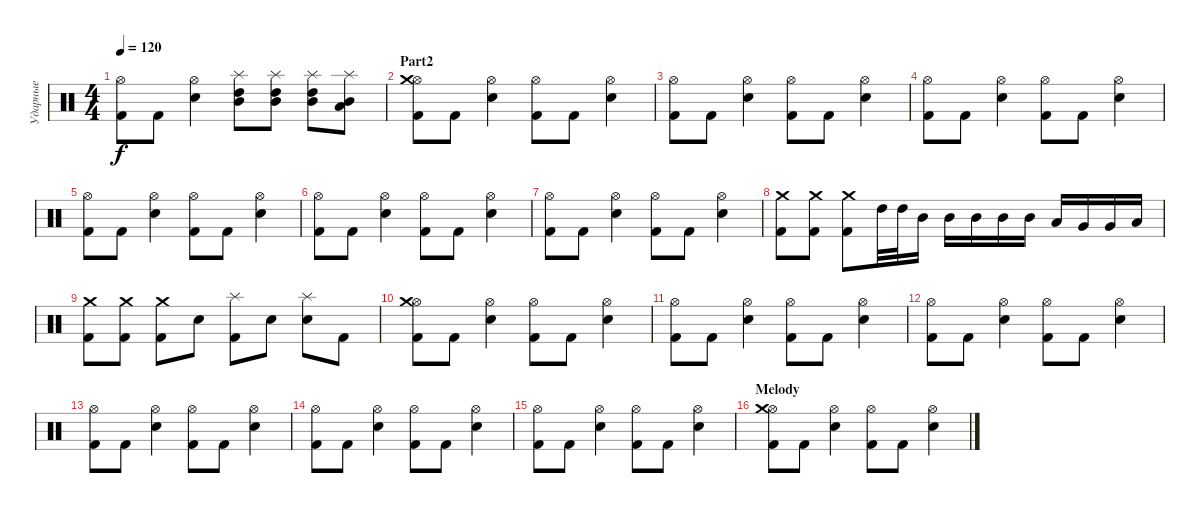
\track ("Ударные" "Ударные") {instrument percussion}
\staff {score}
\articulation defaults
\ts (4 4)
\tempo 120
\clef neutral
\ks c
("Hi-Hat (open)" "Kick (hit) 2").8{dy f} "Kick (hit) 2".8 ("Hi-Hat (open)" "Electric Snare (hit)").4 ("Mid Tom (hit)" "High Tom (hit)" "Splash (hit)").8 ("Mid Tom (hit)" "High Tom (hit)" "Splash (hit)").8 ("Mid Tom (hit)" "High Tom (hit)" "Splash (hit)").8 ("Low Tom (hit)" "Mid Tom (hit)" "Splash (hit)").8 |
\section ("" "Part2")
("Hi-Hat (open)" "Kick (hit) 2" "Crash medium (hit)").8 "Kick (hit) 2".8 ("Hi-Hat (open)" "Electric Snare (hit)").4 ("Hi-Hat (open)" "Kick (hit) 2").8 "Kick (hit) 2".8 ("Hi-Hat (open)" "Electric Snare (hit)").4 |
("Hi-Hat (open)" "Kick (hit) 2").8 "Kick (hit) 2".8 ("Hi-Hat (open)" "Electric Snare (hit)").4 ("Hi-Hat (open)" "Kick (hit) 2").8 "Kick (hit) 2".8 ("Hi-Hat (open)" "Electric Snare (hit)").4 |
("Hi-Hat (open)" "Kick (hit) 2").8 "Kick (hit) 2".8 ("Hi-Hat (open)" "Electric Snare (hit)").4 ("Hi-Hat (open)" "Kick (hit) 2").8 "Kick (hit) 2".8 ("Hi-Hat (open)" "Electric Snare (hit)").4 |
("Hi-Hat (open)" "Kick (hit) 2").8 "Kick (hit) 2".8 ("Hi-Hat (open)" "Electric Snare (hit)").4 ("Hi-Hat (open)" "Kick (hit) 2").8 "Kick (hit) 2".8 ("Hi-Hat (open)" "Electric Snare (hit)").4 |
("Hi-Hat (open)" "Kick (hit) 2").8 "Kick (hit) 2".8 ("Hi-Hat (open)" "Electric Snare (hit)").4 ("Hi-Hat (open)" "Kick (hit) 2").8 "Kick (hit) 2".8 ("Hi-Hat (open)" "Electric Snare (hit)").4 |
("Hi-Hat (open)" "Kick (hit) 2").8 "Kick (hit) 2".8 ("Hi-Hat (open)" "Electric Snare (hit)").4 ("Hi-Hat (open)" "Kick (hit) 2").8 "Kick (hit) 2".8 ("Hi-Hat (open)" "Electric Snare (hit)").4 |
("Crash medium (hit)" "Kick (hit) 2").8 ("Crash medium (hit)" "Kick (hit) 2").8 ("Crash medium (hit)" "Kick (hit) 2").8 "High Tom (hit)".32 "High Tom (hit)".32 "Mid Tom (hit)".16 "Mid Tom (hit)".16 "Mid Tom (hit)".16 "Mid Tom (hit)".16 "Mid Tom (hit)".16 "Low Tom (hit)".16 "Very Low Tom (hit)".16 "Very Low Tom (hit)".16 "Low Floor Tom (hit)".16 |
("Crash medium (hit)" "Kick (hit) 2").8 ("Crash medium (hit)" "Kick (hit) 2").8 ("Crash medium (hit)" "Kick (hit) 2").8 "Electric Snare (hit)".8 ("Splash (hit)" "Kick (hit) 2").8 "Electric Snare (hit)".8 ("Splash (hit)" "Electric Snare (hit)").8 "Kick (hit) 2".8 |
("Hi-Hat (open)" "Kick (hit) 2" "Crash medium (hit)").8 "Kick (hit) 2".8 ("Hi-Hat (open)" "Electric Snare (hit)").4 ("Hi-Hat (open)" "Kick (hit) 2").8 "Kick (hit) 2".8 ("Hi-Hat (open)" "Electric Snare (hit)").4 |
("Hi-Hat (open)" "Kick (hit) 2").8 "Kick (hit) 2".8 ("Hi-Hat (open)" "Electric Snare (hit)").4 ("Hi-Hat (open)" "Kick (hit) 2").8 "Kick (hit) 2".8 ("Hi-Hat (open)" "Electric Snare (hit)").4 |
("Hi-Hat (open)" "Kick (hit) 2").8 "Kick (hit) 2".8 ("Hi-Hat (open)" "Electric Snare (hit)").4 ("Hi-Hat (open)" "Kick (hit) 2").8 "Kick (hit) 2".8 ("Hi-Hat (open)" "Electric Snare (hit)").4 |
("Hi-Hat (open)" "Kick (hit) 2").8 "Kick (hit) 2".8 ("Hi-Hat (open)" "Electric Snare (hit)").4 ("Hi-Hat (open)" "Kick (hit) 2").8 "Kick (hit) 2".8 ("Hi-Hat (open)" "Electric Snare (hit)").4 |
("Hi-Hat (open)" "Kick (hit) 2").8 "Kick (hit) 2".8 ("Hi-Hat (open)" "Electric Snare (hit)").4 ("Hi-Hat (open)" "Kick (hit) 2").8 "Kick (hit) 2".8 ("Hi-Hat (open)" "Electric Snare (hit)").4 |
("Hi-Hat (open)" "Kick (hit) 2").8 "Kick (hit) 2".8 ("Hi-Hat (open)" "Electric Snare (hit)").4 ("Hi-Hat (open)" "Kick (hit) 2").8 "Kick (hit) 2".8 ("Hi-Hat (open)" "Electric Snare (hit)").4 |
\section ("" "Melody")
("Hi-Hat (open)" "Kick (hit) 2" "Crash medium (hit)").8 "Kick (hit) 2".8 ("Hi-Hat (open)" "Electric Snare (hit)").4 ("Hi-Hat (open)" "Kick (hit) 2").8 "Kick (hit) 2".8 ("Hi-Hat (open)" "Electric Snare (hit)").4
